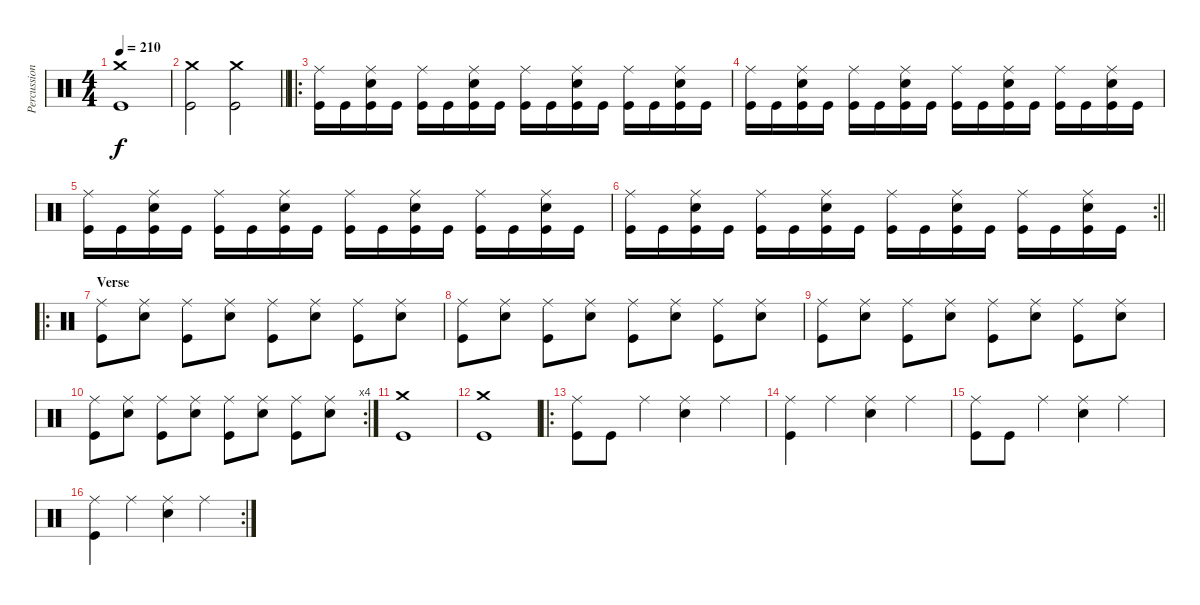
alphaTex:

\track ("Percussion" "Percussion") {instrument percussion}
\staff {score}
\articulation defaults
\ts (4 4)
\tempo 210
\clef neutral
\ks c
("Crash medium (hit)" "Kick (hit)").1{dy f} |
\barLineRight lightlight
("Crash medium (hit)" "Kick (hit)").2 ("Crash medium (hit)" "Kick (hit)").2 |
\ro
("Ride (middle)" "Kick (hit)").16 "Kick (hit)".16 ("Ride (middle)" "Snare (hit) 2" "Kick (hit)").16 "Kick (hit)".16 ("Ride (middle)" "Kick (hit)").16 "Kick (hit)".16 ("Ride (middle)" "Snare (hit) 2" "Kick (hit)").16 "Kick (hit)".16 ("Ride (middle)" "Kick (hit)").16 "Kick (hit)".16 ("Ride (middle)" "Snare (hit) 2" "Kick (hit)").16 "Kick (hit)".16 ("Ride (middle)" "Kick (hit)").16 "Kick (hit)".16 ("Ride (middle)" "Snare (hit) 2" "Kick (hit)").16 "Kick (hit)".16 |
("Ride (middle)" "Kick (hit)").16 "Kick (hit)".16 ("Ride (middle)" "Snare (hit) 2" "Kick (hit)").16 "Kick (hit)".16 ("Ride (middle)" "Kick (hit)").16 "Kick (hit)".16 ("Ride (middle)" "Snare (hit) 2" "Kick (hit)").16 "Kick (hit)".16 ("Ride (middle)" "Kick (hit)").16 "Kick (hit)".16 ("Ride (middle)" "Snare (hit) 2" "Kick (hit)").16 "Kick (hit)".16 ("Ride (middle)" "Kick (hit)").16 "Kick (hit)".16 ("Ride (middle)" "Snare (hit) 2" "Kick (hit)").16 "Kick (hit)".16 |
("Ride (middle)" "Kick (hit)").16 "Kick (hit)".16 ("Ride (middle)" "Snare (hit) 2" "Kick (hit)").16 "Kick (hit)".16 ("Ride (middle)" "Kick (hit)").16 "Kick (hit)".16 ("Ride (middle)" "Snare (hit) 2" "Kick (hit)").16 "Kick (hit)".16 ("Ride (middle)" "Kick (hit)").16 "Kick (hit)".16 ("Ride (middle)" "Snare (hit) 2" "Kick (hit)").16 "Kick (hit)".16 ("Ride (middle)" "Kick (hit)").16 "Kick (hit)".16 ("Ride (middle)" "Snare (hit) 2" "Kick (hit)").16 "Kick (hit)".16 |
\rc 2
\barLineRight lightlight
("Ride (middle)" "Kick (hit)").16 "Kick (hit)".16 ("Ride (middle)" "Snare (hit) 2" "Kick (hit)").16 "Kick (hit)".16 ("Ride (middle)" "Kick (hit)").16 "Kick (hit)".16 ("Ride (middle)" "Snare (hit) 2" "Kick (hit)").16 "Kick (hit)".16 ("Ride (middle)" "Kick (hit)").16 "Kick (hit)".16 ("Ride (middle)" "Snare (hit) 2" "Kick (hit)").16 "Kick (hit)".16 ("Ride (middle)" "Kick (hit)").16 "Kick (hit)".16 ("Ride (middle)" "Snare (hit) 2" "Kick (hit)").16 "Kick (hit)".16 |
\ro
\section ("" "Verse")
("Ride (middle)" "Kick (hit)").8 ("Ride (middle)" "Snare (hit) 2").8 ("Ride (middle)" "Kick (hit)").8 ("Ride (middle)" "Snare (hit) 2").8 ("Ride (middle)" "Kick (hit)").8 ("Ride (middle)" "Snare (hit) 2").8 ("Ride (middle)" "Kick (hit)").8 ("Ride (middle)" "Snare (hit) 2").8 |
("Ride (middle)" "Kick (hit)").8 ("Ride (middle)" "Snare (hit) 2").8 ("Ride (middle)" "Kick (hit)").8 ("Ride (middle)" "Snare (hit) 2").8 ("Ride (middle)" "Kick (hit)").8 ("Ride (middle)" "Snare (hit) 2").8 ("Ride (middle)" "Kick (hit)").8 ("Ride (middle)" "Snare (hit) 2").8 |
("Ride (middle)" "Kick (hit)").8 ("Ride (middle)" "Snare (hit) 2").8 ("Ride (middle)" "Kick (hit)").8 ("Ride (middle)" "Snare (hit) 2").8 ("Ride (middle)" "Kick (hit)").8 ("Ride (middle)" "Snare (hit) 2").8 ("Ride (middle)" "Kick (hit)").8 ("Ride (middle)" "Snare (hit) 2").8 |
\rc 4
("Ride (middle)" "Kick (hit)").8 ("Ride (middle)" "Snare (hit) 2").8 ("Ride (middle)" "Kick (hit)").8 ("Ride (middle)" "Snare (hit) 2").8 ("Ride (middle)" "Kick (hit)").8 ("Ride (middle)" "Snare (hit) 2").8 ("Ride (middle)" "Kick (hit)").8 ("Ride (middle)" "Snare (hit) 2").8 |
("Crash medium (hit)" "Kick (hit)").1 |
("Crash medium (hit)" "Kick (hit)").1 |
\ro
("Ride (middle)" "Kick (hit)").8 "Kick (hit)".8 "Ride (middle)".4 ("Ride (middle)" "Snare (hit) 2").4 "Ride (middle)".4 |
("Ride (middle)" "Kick (hit)").4 "Ride (middle)".4 ("Ride (middle)" "Snare (hit) 2").4 "Ride (middle)".4 |
("Ride (middle)" "Kick (hit)").8 "Kick (hit)".8 "Ride (middle)".4 ("Ride (middle)" "Snare (hit) 2").4 "Ride (middle)".4 |
\rc 2
("Ride (middle)" "Kick (hit)").4 "Ride (middle)".4 ("Ride (middle)" "Snare (hit) 2").4 "Ride (middle)".4
